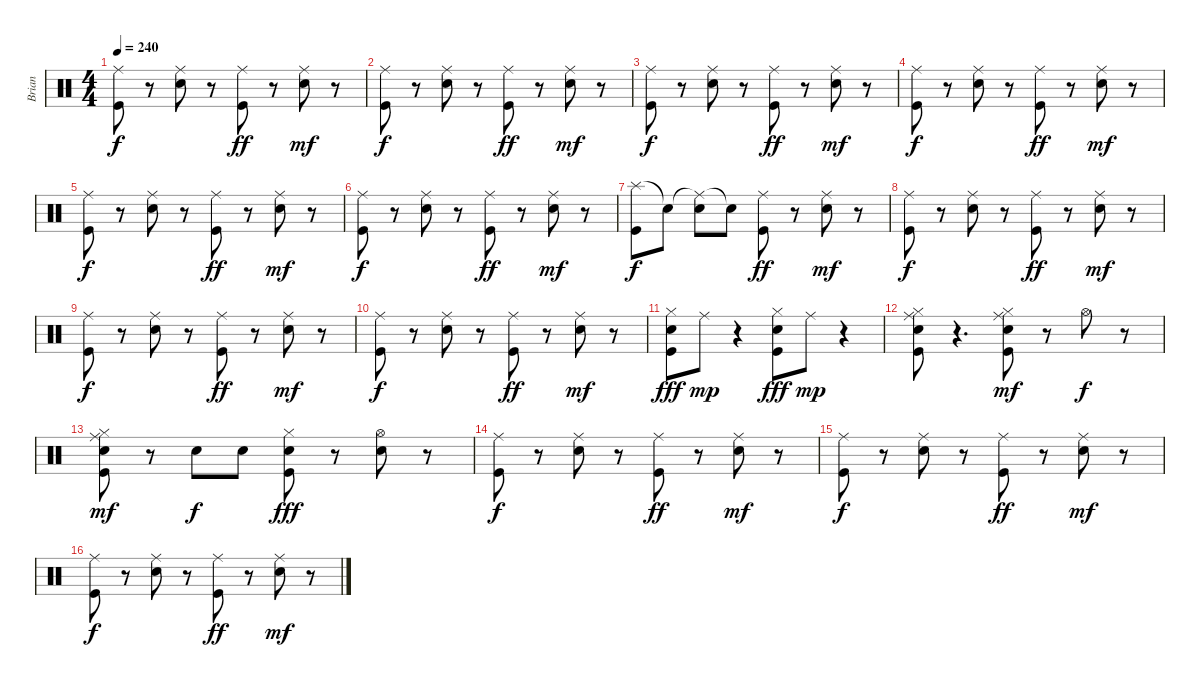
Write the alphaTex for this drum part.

\track ("Brian" "Brian") {instrument percussion}
\staff {score}
\articulation defaults
\ts (4 4)
\tempo 240
\clef neutral
\ks c
("Ride (middle)" "Kick (hit)").8{dy f} r.8 ("Ride (middle)" "Snare (hit) 2").8 r.8 ("Ride (middle)" "Kick (hit)").8{dy ff} r.8 ("Ride (middle)" "Snare (hit) 2").8{dy mf} r.8 |
("Ride (middle)" "Kick (hit)").8{dy f} r.8 ("Ride (middle)" "Snare (hit) 2").8 r.8 ("Ride (middle)" "Kick (hit)").8{dy ff} r.8 ("Ride (middle)" "Snare (hit) 2").8{dy mf} r.8 |
("Ride (middle)" "Kick (hit)").8{dy f} r.8 ("Ride (middle)" "Snare (hit) 2").8 r.8 ("Ride (middle)" "Kick (hit)").8{dy ff} r.8 ("Ride (middle)" "Snare (hit) 2").8{dy mf} r.8 |
("Ride (middle)" "Kick (hit)").8{dy f} r.8 ("Ride (middle)" "Snare (hit) 2").8 r.8 ("Ride (middle)" "Kick (hit)").8{dy ff} r.8 ("Ride (middle)" "Snare (hit) 2").8{dy mf} r.8 |
("Ride (middle)" "Kick (hit)").8{dy f} r.8 ("Ride (middle)" "Snare (hit) 2").8 r.8 ("Ride (middle)" "Kick (hit)").8{dy ff} r.8 ("Ride (middle)" "Snare (hit) 2").8{dy mf} r.8 |
("Ride (middle)" "Kick (hit)").8{dy f} r.8 ("Ride (middle)" "Snare (hit) 2").8 r.8 ("Ride (middle)" "Kick (hit)").8{dy ff} r.8 ("Ride (middle)" "Snare (hit) 2").8{dy mf} r.8 |
("Splash (hit)" "Kick (hit)").8{dy f} "Snare (hit)"{t}.8 ("Ride (middle)"{t} "Snare (hit) 2").8 "Snare (hit)"{t}.8 ("Ride (middle)" "Kick (hit)").8{dy ff} r.8 ("Ride (middle)" "Snare (hit) 2").8{dy mf} r.8 |
("Ride (middle)" "Kick (hit)").8{dy f} r.8 ("Ride (middle)" "Snare (hit) 2").8 r.8 ("Ride (middle)" "Kick (hit)").8{dy ff} r.8 ("Ride (middle)" "Snare (hit) 2").8{dy mf} r.8 |
("Ride (middle)" "Kick (hit)").8{dy f} r.8 ("Ride (middle)" "Snare (hit) 2").8 r.8 ("Ride (middle)" "Kick (hit)").8{dy ff} r.8 ("Ride (middle)" "Snare (hit) 2").8{dy mf} r.8 |
("Ride (middle)" "Kick (hit)").8{dy f} r.8 ("Ride (middle)" "Snare (hit) 2").8 r.8 ("Ride (middle)" "Kick (hit)").8{dy ff} r.8 ("Ride (middle)" "Snare (hit) 2").8{dy mf} r.8 |
("Hi-Hat (closed)" "Snare (hit) 2" "Kick (hit)").8{dy fff} "Ride (middle)".8{dy mp} r.4 ("Hi-Hat (closed)" "Snare (hit) 2" "Kick (hit)").8{dy fff} "Ride (middle)".8{dy mp} r.4 |
("Ride (middle)" "Hi-Hat (closed)" "Snare (hit) 2" "Kick (hit)").8 r.4{d} ("Ride (middle)" "Hi-Hat (closed)" "Snare (hit) 2" "Kick (hit)").8{dy mf} r.8 "Hi-Hat (open)".8{dy f} r.8 |
("Ride (middle)" "Hi-Hat (closed)" "Snare (hit) 2" "Kick (hit)").8{dy mf} r.8 "Snare (hit) 2".8{dy f} "Snare (hit) 2".8 ("Hi-Hat (closed)" "Snare (hit) 2" "Kick (hit)").8{dy fff} r.8 ("Hi-Hat (open)" "Snare (hit) 2").8 r.8 |
("Ride (middle)" "Kick (hit)").8{dy f} r.8 ("Ride (middle)" "Snare (hit) 2").8 r.8 ("Ride (middle)" "Kick (hit)").8{dy ff} r.8 ("Ride (middle)" "Snare (hit) 2").8{dy mf} r.8 |
("Ride (middle)" "Kick (hit)").8{dy f} r.8 ("Ride (middle)" "Snare (hit) 2").8 r.8 ("Ride (middle)" "Kick (hit)").8{dy ff} r.8 ("Ride (middle)" "Snare (hit) 2").8{dy mf} r.8 |
("Ride (middle)" "Kick (hit)").8{dy f} r.8 ("Ride (middle)" "Snare (hit) 2").8 r.8 ("Ride (middle)" "Kick (hit)").8{dy ff} r.8 ("Ride (middle)" "Snare (hit) 2").8{dy mf} r.8
